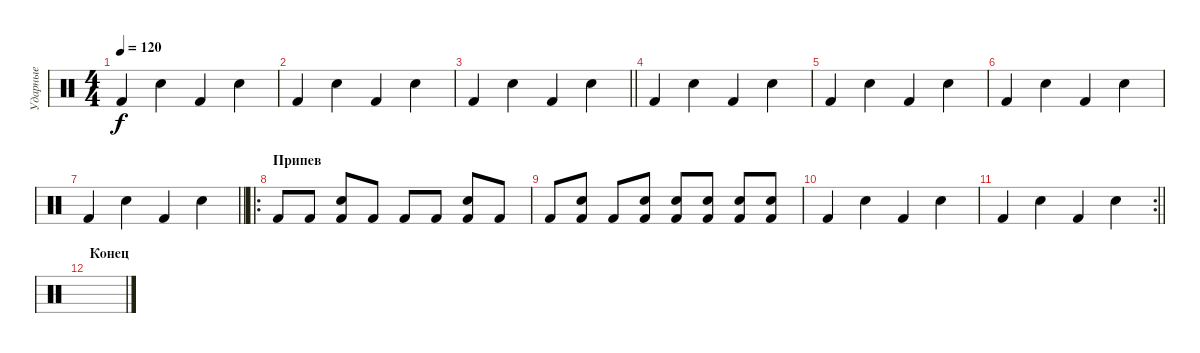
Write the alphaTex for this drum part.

\track ("Ударные" "Ударные") {instrument percussion}
\staff {score}
\articulation defaults
\ts (4 4)
\tempo 120
\clef neutral
\ks c "Kick (hit) 2".4{dy f} "Snare (hit) 2".4 "Kick (hit) 2".4 "Snare (hit) 2".4
|
"Kick (hit) 2".4 "Snare (hit) 2".4 "Kick (hit) 2".4 "Snare (hit) 2".4 |
\barLineRight lightlight "Kick (hit) 2".4 "Snare (hit) 2".4 "Kick (hit) 2".4 "Snare (hit) 2".4
|
"Kick (hit) 2".4 "Snare (hit) 2".4 "Kick (hit) 2".4 "Snare (hit) 2".4 |
"Kick (hit) 2".4 "Snare (hit) 2".4 "Kick (hit) 2".4 "Snare (hit) 2".4 |
"Kick (hit) 2".4 "Snare (hit) 2".4 "Kick (hit) 2".4 "Snare (hit) 2".4 |
\barLineRight lightlight "Kick (hit) 2".4 "Snare (hit) 2".4 "Kick (hit) 2".4 "Snare (hit) 2".4
|
\ro
\section ("" "Припев")
"Kick (hit) 2".8 "Kick (hit) 2".8 ("Snare (hit) 2" "Kick (hit) 2").8 "Kick (hit) 2".8 "Kick (hit) 2".8 "Kick (hit) 2".8 ("Snare (hit) 2" "Kick (hit) 2").8 "Kick (hit) 2".8 |
"Kick (hit) 2".8 ("Snare (hit) 2" "Kick (hit) 2").8 "Kick (hit) 2".8 ("Snare (hit) 2" "Kick (hit) 2").8 ("Snare (hit) 2" "Kick (hit) 2").8 ("Snare (hit) 2" "Kick (hit) 2").8 ("Snare (hit) 2" "Kick (hit) 2").8 ("Snare (hit) 2" "Kick (hit) 2").8 |
"Kick (hit) 2".4 "Snare (hit) 2".4 "Kick (hit) 2".4 "Snare (hit) 2".4 |
\rc 2
\barLineRight lightlight "Kick (hit) 2".4 "Snare (hit) 2".4 "Kick (hit) 2".4 "Snare (hit) 2".4
|
\section ("" "Конец")
